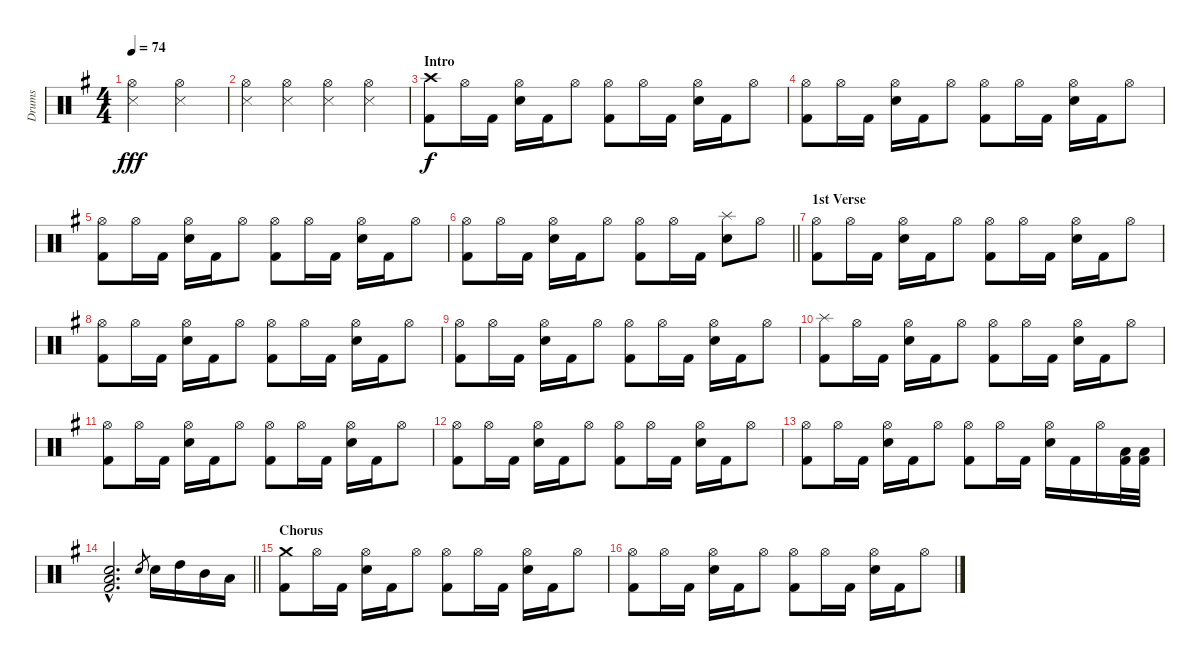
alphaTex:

\track ("Drums" "Drums") {instrument percussion}
\staff {score}
\articulation defaults
\ts (4 4)
\tempo 74
\clef neutral
\ks eminor
("Hi-Hat (open)" "Snare (side stick) 3").2{dy fff} ("Hi-Hat (open)" "Snare (side stick) 3").2 |
("Hi-Hat (open)" "Snare (side stick) 3").4 ("Hi-Hat (open)" "Snare (side stick) 3").4 ("Hi-Hat (open)" "Snare (side stick) 3").4 ("Hi-Hat (open)" "Snare (side stick) 3").4 |
\section ("" "Intro")
("Crash high (hit)" "Kick (hit) 2").8{dy f} "Hi-Hat (open)".16 "Kick (hit) 2".16 ("Hi-Hat (open)" "Electric Snare (hit)").16 "Kick (hit) 2".16 "Hi-Hat (open)".8 ("Hi-Hat (open)" "Kick (hit) 2").8 "Hi-Hat (open)".16 "Kick (hit) 2".16 ("Hi-Hat (open)" "Electric Snare (hit)").16 "Kick (hit) 2".16 "Hi-Hat (open)".8 |
("Hi-Hat (open)" "Kick (hit) 2").8 "Hi-Hat (open)".16 "Kick (hit) 2".16 ("Hi-Hat (open)" "Electric Snare (hit)").16 "Kick (hit) 2".16 "Hi-Hat (open)".8 ("Hi-Hat (open)" "Kick (hit) 2").8 "Hi-Hat (open)".16 "Kick (hit) 2".16 ("Hi-Hat (open)" "Electric Snare (hit)").16 "Kick (hit) 2".16 "Hi-Hat (open)".8 |
("Hi-Hat (open)" "Kick (hit) 2").8 "Hi-Hat (open)".16 "Kick (hit) 2".16 ("Hi-Hat (open)" "Electric Snare (hit)").16 "Kick (hit) 2".16 "Hi-Hat (open)".8 ("Hi-Hat (open)" "Kick (hit) 2").8 "Hi-Hat (open)".16 "Kick (hit) 2".16 ("Hi-Hat (open)" "Electric Snare (hit)").16 "Kick (hit) 2".16 "Hi-Hat (open)".8 |
\barLineRight lightlight
("Hi-Hat (open)" "Kick (hit) 2").8 "Hi-Hat (open)".16 "Kick (hit) 2".16 ("Hi-Hat (open)" "Electric Snare (hit)").16 "Kick (hit) 2".16 "Hi-Hat (open)".8 ("Hi-Hat (open)" "Kick (hit) 2").8 "Hi-Hat (open)".16 "Kick (hit) 2".16 ("Splash (hit)" "Electric Snare (hit)").8 "Hi-Hat (open)".8 |
\section ("" "1st Verse")
("Hi-Hat (open)" "Kick (hit) 2").8 "Hi-Hat (open)".16 "Kick (hit) 2".16 ("Hi-Hat (open)" "Electric Snare (hit)").16 "Kick (hit) 2".16 "Hi-Hat (open)".8 ("Hi-Hat (open)" "Kick (hit) 2").8 "Hi-Hat (open)".16 "Kick (hit) 2".16 ("Hi-Hat (open)" "Electric Snare (hit)").16 "Kick (hit) 2".16 "Hi-Hat (open)".8 |
("Hi-Hat (open)" "Kick (hit) 2").8 "Hi-Hat (open)".16 "Kick (hit) 2".16 ("Hi-Hat (open)" "Electric Snare (hit)").16 "Kick (hit) 2".16 "Hi-Hat (open)".8 ("Hi-Hat (open)" "Kick (hit) 2").8 "Hi-Hat (open)".16 "Kick (hit) 2".16 ("Hi-Hat (open)" "Electric Snare (hit)").16 "Kick (hit) 2".16 "Hi-Hat (open)".8 |
("Hi-Hat (open)" "Kick (hit) 2").8 "Hi-Hat (open)".16 "Kick (hit) 2".16 ("Hi-Hat (open)" "Electric Snare (hit)").16 "Kick (hit) 2".16 "Hi-Hat (open)".8 ("Hi-Hat (open)" "Kick (hit) 2").8 "Hi-Hat (open)".16 "Kick (hit) 2".16 ("Hi-Hat (open)" "Electric Snare (hit)").16 "Kick (hit) 2".16 "Hi-Hat (open)".8 |
("Splash (hit)" "Kick (hit) 2").8 "Hi-Hat (open)".16 "Kick (hit) 2".16 ("Hi-Hat (open)" "Electric Snare (hit)").16 "Kick (hit) 2".16 "Hi-Hat (open)".8 ("Hi-Hat (open)" "Kick (hit) 2").8 "Hi-Hat (open)".16 "Kick (hit) 2".16 ("Hi-Hat (open)" "Electric Snare (hit)").16 "Kick (hit) 2".16 "Hi-Hat (open)".8 |
("Hi-Hat (open)" "Kick (hit) 2").8 "Hi-Hat (open)".16 "Kick (hit) 2".16 ("Hi-Hat (open)" "Electric Snare (hit)").16 "Kick (hit) 2".16 "Hi-Hat (open)".8 ("Hi-Hat (open)" "Kick (hit) 2").8 "Hi-Hat (open)".16 "Kick (hit) 2".16 ("Hi-Hat (open)" "Electric Snare (hit)").16 "Kick (hit) 2".16 "Hi-Hat (open)".8 |
("Hi-Hat (open)" "Kick (hit) 2").8 "Hi-Hat (open)".16 "Kick (hit) 2".16 ("Hi-Hat (open)" "Electric Snare (hit)").16 "Kick (hit) 2".16 "Hi-Hat (open)".8 ("Hi-Hat (open)" "Kick (hit) 2").8 "Hi-Hat (open)".16 "Kick (hit) 2".16 ("Hi-Hat (open)" "Electric Snare (hit)").16 "Kick (hit) 2".16 "Hi-Hat (open)".8 |
("Hi-Hat (open)" "Kick (hit) 2").8 "Hi-Hat (open)".16 "Kick (hit) 2".16 ("Hi-Hat (open)" "Electric Snare (hit)").16 "Kick (hit) 2".16 "Hi-Hat (open)".8 ("Hi-Hat (open)" "Kick (hit) 2").8 "Hi-Hat (open)".16 "Kick (hit) 2".16 ("Hi-Hat (open)" "Electric Snare (hit)").16 "Kick (hit) 2".16 "Hi-Hat (open)".16 ("Low Floor Tom (hit)" "Kick (hit) 2").32 ("Low Floor Tom (hit)" "Kick (hit) 2").32 |
\barLineRight lightlight
("Low Floor Tom (hit)"{hac} "Electric Snare (hit)"{hac} "Kick (hit) 2"{hac}).2{d} "Electric Snare (hit)".8{gr} "Electric Snare (hit)".16 "High Tom (hit)".16 "Mid Tom (hit)".16 "Low Tom (hit)".16 |
\section ("" "Chorus")
("Crash medium (hit)" "Kick (hit) 2").8 "Hi-Hat (open)".16 "Kick (hit) 2".16 ("Hi-Hat (open)" "Electric Snare (hit)").16 "Kick (hit) 2".16 "Hi-Hat (open)".8 ("Hi-Hat (open)" "Kick (hit) 2").8 "Hi-Hat (open)".16 "Kick (hit) 2".16 ("Hi-Hat (open)" "Electric Snare (hit)").16 "Kick (hit) 2".16 "Hi-Hat (open)".8 |
("Hi-Hat (open)" "Kick (hit) 2").8 "Hi-Hat (open)".16 "Kick (hit) 2".16 ("Hi-Hat (open)" "Electric Snare (hit)").16 "Kick (hit) 2".16 "Hi-Hat (open)".8 ("Hi-Hat (open)" "Kick (hit) 2").8 "Hi-Hat (open)".16 "Kick (hit) 2".16 ("Hi-Hat (open)" "Electric Snare (hit)").16 "Kick (hit) 2".16 "Hi-Hat (open)".8
